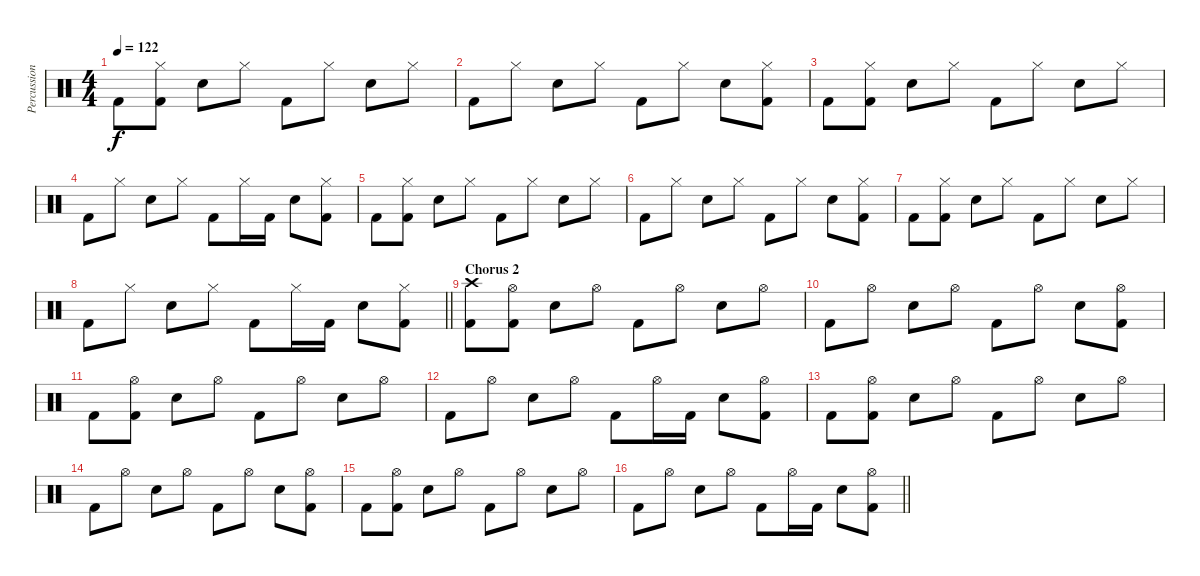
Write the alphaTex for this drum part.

\track ("Percussion" "Percussion") {instrument percussion}
\staff {score}
\articulation defaults
\ts (4 4)
\tempo 122
\clef neutral
\ks c "Kick (hit) 2".8{dy f}
("Hi-Hat (closed)" "Kick (hit) 2").8 "Electric Snare (hit)".8 "Hi-Hat (closed)".8 "Kick (hit) 2".8 "Hi-Hat (closed)".8 "Electric Snare (hit)".8 "Hi-Hat (closed)".8 |
"Kick (hit) 2".8 "Hi-Hat (closed)".8 "Electric Snare (hit)".8 "Hi-Hat (closed)".8 "Kick (hit) 2".8 "Hi-Hat (closed)".8 "Electric Snare (hit)".8 ("Hi-Hat (closed)" "Kick (hit) 2").8 |
"Kick (hit) 2".8 ("Hi-Hat (closed)" "Kick (hit) 2").8 "Electric Snare (hit)".8 "Hi-Hat (closed)".8 "Kick (hit) 2".8 "Hi-Hat (closed)".8 "Electric Snare (hit)".8 "Hi-Hat (closed)".8 |
"Kick (hit) 2".8 "Hi-Hat (closed)".8 "Electric Snare (hit)".8 "Hi-Hat (closed)".8 "Kick (hit) 2".8 "Hi-Hat (closed)".16 "Kick (hit) 2".16 "Electric Snare (hit)".8 ("Hi-Hat (closed)" "Kick (hit) 2").8 |
"Kick (hit) 2".8 ("Hi-Hat (closed)" "Kick (hit) 2").8 "Electric Snare (hit)".8 "Hi-Hat (closed)".8 "Kick (hit) 2".8 "Hi-Hat (closed)".8 "Electric Snare (hit)".8 "Hi-Hat (closed)".8 |
"Kick (hit) 2".8 "Hi-Hat (closed)".8 "Electric Snare (hit)".8 "Hi-Hat (closed)".8 "Kick (hit) 2".8 "Hi-Hat (closed)".8 "Electric Snare (hit)".8 ("Hi-Hat (closed)" "Kick (hit) 2").8 |
"Kick (hit) 2".8 ("Hi-Hat (closed)" "Kick (hit) 2").8 "Electric Snare (hit)".8 "Hi-Hat (closed)".8 "Kick (hit) 2".8 "Hi-Hat (closed)".8 "Electric Snare (hit)".8 "Hi-Hat (closed)".8 |
\barLineRight lightlight "Kick (hit) 2".8 "Hi-Hat (closed)".8 "Electric Snare (hit)".8 "Hi-Hat (closed)".8 "Kick (hit) 2".8 "Hi-Hat (closed)".16 "Kick (hit) 2".16 "Electric Snare (hit)".8
("Hi-Hat (closed)" "Kick (hit) 2").8 |
\section ("" "Chorus 2")
("Crash high (hit)" "Kick (hit) 2").8 ("Hi-Hat (open)" "Kick (hit) 2").8 "Electric Snare (hit)".8 "Hi-Hat (open)".8 "Kick (hit) 2".8 "Hi-Hat (open)".8 "Electric Snare (hit)".8 "Hi-Hat (open)".8 |
"Kick (hit) 2".8 "Hi-Hat (open)".8 "Electric Snare (hit)".8 "Hi-Hat (open)".8 "Kick (hit) 2".8 "Hi-Hat (open)".8 "Electric Snare (hit)".8 ("Hi-Hat (open)" "Kick (hit) 2").8 |
"Kick (hit) 2".8 ("Hi-Hat (open)" "Kick (hit) 2").8 "Electric Snare (hit)".8 "Hi-Hat (open)".8 "Kick (hit) 2".8 "Hi-Hat (open)".8 "Electric Snare (hit)".8 "Hi-Hat (open)".8 |
"Kick (hit) 2".8 "Hi-Hat (open)".8 "Electric Snare (hit)".8 "Hi-Hat (open)".8 "Kick (hit) 2".8 "Hi-Hat (open)".16 "Kick (hit) 2".16 "Electric Snare (hit)".8 ("Hi-Hat (open)" "Kick (hit) 2").8 |
"Kick (hit) 2".8 ("Hi-Hat (open)" "Kick (hit) 2").8 "Electric Snare (hit)".8 "Hi-Hat (open)".8 "Kick (hit) 2".8 "Hi-Hat (open)".8 "Electric Snare (hit)".8 "Hi-Hat (open)".8 |
"Kick (hit) 2".8 "Hi-Hat (open)".8 "Electric Snare (hit)".8 "Hi-Hat (open)".8 "Kick (hit) 2".8 "Hi-Hat (open)".8 "Electric Snare (hit)".8 ("Hi-Hat (open)" "Kick (hit) 2").8 |
"Kick (hit) 2".8 ("Hi-Hat (open)" "Kick (hit) 2").8 "Electric Snare (hit)".8 "Hi-Hat (open)".8 "Kick (hit) 2".8 "Hi-Hat (open)".8 "Electric Snare (hit)".8 "Hi-Hat (open)".8 |
\barLineRight lightlight "Kick (hit) 2".8 "Hi-Hat (open)".8 "Electric Snare (hit)".8 "Hi-Hat (open)".8 "Kick (hit) 2".8 "Hi-Hat (open)".16 "Kick (hit) 2".16 "Electric Snare (hit)".8
("Hi-Hat (open)" "Kick (hit) 2").8
